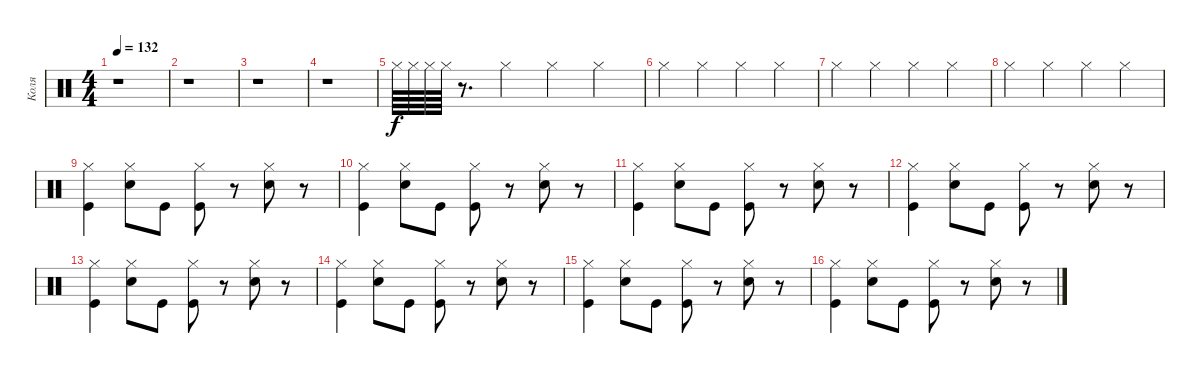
\track ("Коля" "Коля") {instrument percussion}
\staff {score}
\articulation defaults
\ts (4 4)
\tempo 132
\clef neutral
\ks c
r.1{dy f} |
r.1 |
r.1 |
r.1 |
"Hi-Hat (closed)".64 "Hi-Hat (closed)".64 "Hi-Hat (closed)".64 "Hi-Hat (closed)".64 r.8{d} "Hi-Hat (closed)".4 "Hi-Hat (closed)".4 "Hi-Hat (closed)".4 |
"Hi-Hat (closed)".4 "Hi-Hat (closed)".4 "Hi-Hat (closed)".4 "Hi-Hat (closed)".4 |
"Hi-Hat (closed)".4 "Hi-Hat (closed)".4 "Hi-Hat (closed)".4 "Hi-Hat (closed)".4 |
"Hi-Hat (closed)".4 "Hi-Hat (closed)".4 "Hi-Hat (closed)".4 "Hi-Hat (closed)".4 |
("Hi-Hat (closed)" "Kick (hit)").4 ("Hi-Hat (closed)" "Snare (hit) 2").8 "Kick (hit)".8 ("Hi-Hat (closed)" "Kick (hit)").8 r.8 ("Hi-Hat (closed)" "Snare (hit) 2").8 r.8 |
("Hi-Hat (closed)" "Kick (hit)").4 ("Hi-Hat (closed)" "Snare (hit) 2").8 "Kick (hit)".8 ("Hi-Hat (closed)" "Kick (hit)").8 r.8 ("Hi-Hat (closed)" "Snare (hit) 2").8 r.8 |
("Hi-Hat (closed)" "Kick (hit)").4 ("Hi-Hat (closed)" "Snare (hit) 2").8 "Kick (hit)".8 ("Hi-Hat (closed)" "Kick (hit)").8 r.8 ("Hi-Hat (closed)" "Snare (hit) 2").8 r.8 |
("Hi-Hat (closed)" "Kick (hit)").4 ("Hi-Hat (closed)" "Snare (hit) 2").8 "Kick (hit)".8 ("Hi-Hat (closed)" "Kick (hit)").8 r.8 ("Hi-Hat (closed)" "Snare (hit) 2").8 r.8 |
("Hi-Hat (closed)" "Kick (hit)").4 ("Hi-Hat (closed)" "Snare (hit) 2").8 "Kick (hit)".8 ("Hi-Hat (closed)" "Kick (hit)").8 r.8 ("Hi-Hat (closed)" "Snare (hit) 2").8 r.8 |
("Hi-Hat (closed)" "Kick (hit)").4 ("Hi-Hat (closed)" "Snare (hit) 2").8 "Kick (hit)".8 ("Hi-Hat (closed)" "Kick (hit)").8 r.8 ("Hi-Hat (closed)" "Snare (hit) 2").8 r.8 |
("Hi-Hat (closed)" "Kick (hit)").4 ("Hi-Hat (closed)" "Snare (hit) 2").8 "Kick (hit)".8 ("Hi-Hat (closed)" "Kick (hit)").8 r.8 ("Hi-Hat (closed)" "Snare (hit) 2").8 r.8 |
("Hi-Hat (closed)" "Kick (hit)").4 ("Hi-Hat (closed)" "Snare (hit) 2").8 "Kick (hit)".8 ("Hi-Hat (closed)" "Kick (hit)").8 r.8 ("Hi-Hat (closed)" "Snare (hit) 2").8 r.8
